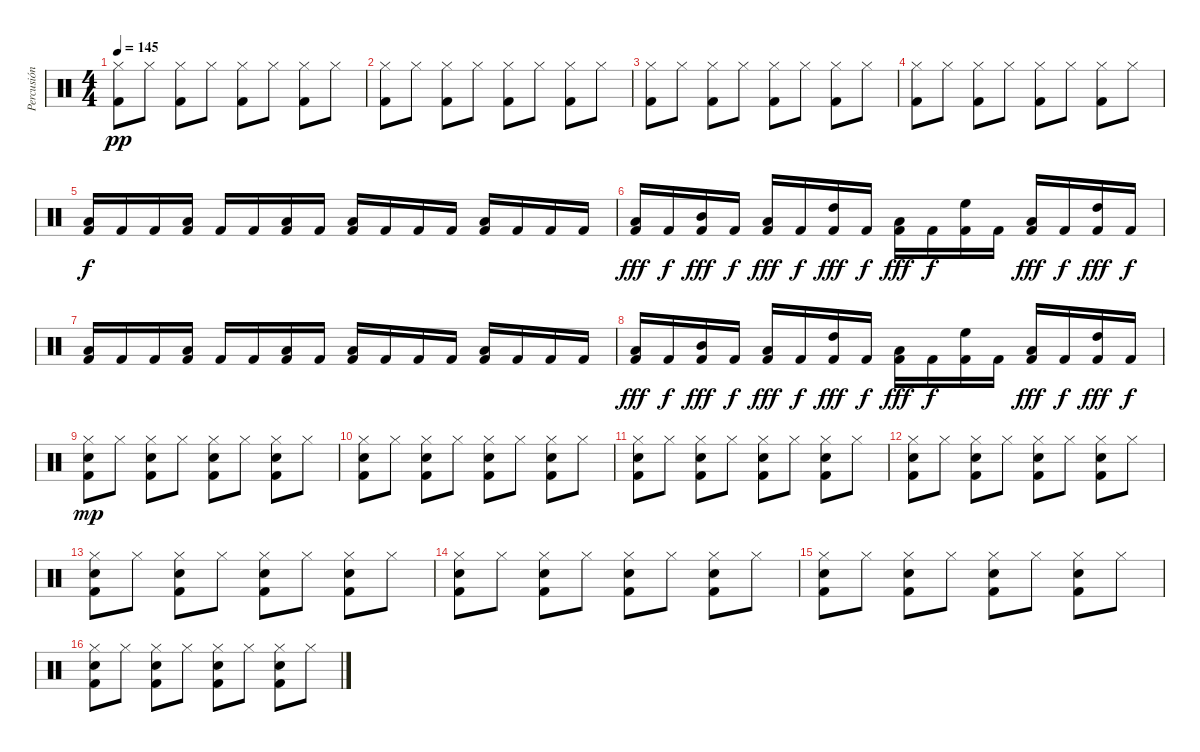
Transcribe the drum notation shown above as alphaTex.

\track ("Percusión" "Percusión") {instrument percussion}
\staff {score}
\articulation defaults
\ts (4 4)
\tempo 145
\clef neutral
\ks c
("Hi-Hat (closed)" "Kick (hit) 2").8{dy pp} "Hi-Hat (closed)".8 ("Hi-Hat (closed)" "Kick (hit) 2").8 "Hi-Hat (closed)".8 ("Hi-Hat (closed)" "Kick (hit) 2").8 "Hi-Hat (closed)".8 ("Hi-Hat (closed)" "Kick (hit) 2").8 "Hi-Hat (closed)".8 |
("Hi-Hat (closed)" "Kick (hit) 2").8 "Hi-Hat (closed)".8 ("Hi-Hat (closed)" "Kick (hit) 2").8 "Hi-Hat (closed)".8 ("Hi-Hat (closed)" "Kick (hit) 2").8 "Hi-Hat (closed)".8 ("Hi-Hat (closed)" "Kick (hit) 2").8 "Hi-Hat (closed)".8 |
("Hi-Hat (closed)" "Kick (hit) 2").8 "Hi-Hat (closed)".8 ("Hi-Hat (closed)" "Kick (hit) 2").8 "Hi-Hat (closed)".8 ("Hi-Hat (closed)" "Kick (hit) 2").8 "Hi-Hat (closed)".8 ("Hi-Hat (closed)" "Kick (hit) 2").8 "Hi-Hat (closed)".8 |
("Hi-Hat (closed)" "Kick (hit) 2").8 "Hi-Hat (closed)".8 ("Hi-Hat (closed)" "Kick (hit) 2").8 "Hi-Hat (closed)".8 ("Hi-Hat (closed)" "Kick (hit) 2").8 "Hi-Hat (closed)".8 ("Hi-Hat (closed)" "Kick (hit) 2").8 "Hi-Hat (closed)".8 |
("Kick (hit) 2" "Low Tom (hit)").16{dy f} "Kick (hit) 2".16 "Kick (hit) 2".16 ("Kick (hit) 2" "Low Tom (hit)").16 "Kick (hit) 2".16 "Kick (hit) 2".16 ("Kick (hit) 2" "Low Tom (hit)").16 "Kick (hit) 2".16 ("Kick (hit) 2" "Low Tom (hit)").16 "Kick (hit) 2".16 "Kick (hit) 2".16 "Kick (hit) 2".16 ("Kick (hit) 2" "Low Tom (hit)").16 "Kick (hit) 2".16 "Kick (hit) 2".16 "Kick (hit) 2".16 |
("Kick (hit) 2" "Low Tom (hit)").16{dy fff} "Kick (hit) 2".16{dy f} ("Kick (hit) 2" "Mid Tom (hit)").16{dy fff} "Kick (hit) 2".16{dy f} ("Kick (hit) 2" "Low Tom (hit)").16{dy fff} "Kick (hit) 2".16{dy f} ("Kick (hit) 2" "High Tom (hit)").16{dy fff} "Kick (hit) 2".16{dy f} ("Kick (hit) 2" "Low Tom (hit)").16{dy fff} "Kick (hit) 2".16{dy f} ("Kick (hit) 2" "High Floor Tom (hit)").16 "Kick (hit) 2".16 ("Kick (hit) 2" "Low Tom (hit)").16{dy fff} "Kick (hit) 2".16{dy f} ("Kick (hit) 2" "High Tom (hit)").16{dy fff} "Kick (hit) 2".16{dy f} |
("Kick (hit) 2" "Low Tom (hit)").16 "Kick (hit) 2".16 "Kick (hit) 2".16 ("Kick (hit) 2" "Low Tom (hit)").16 "Kick (hit) 2".16 "Kick (hit) 2".16 ("Kick (hit) 2" "Low Tom (hit)").16 "Kick (hit) 2".16 ("Kick (hit) 2" "Low Tom (hit)").16 "Kick (hit) 2".16 "Kick (hit) 2".16 "Kick (hit) 2".16 ("Kick (hit) 2" "Low Tom (hit)").16 "Kick (hit) 2".16 "Kick (hit) 2".16 "Kick (hit) 2".16 |
("Kick (hit) 2" "Low Tom (hit)").16{dy fff} "Kick (hit) 2".16{dy f} ("Kick (hit) 2" "Mid Tom (hit)").16{dy fff} "Kick (hit) 2".16{dy f} ("Kick (hit) 2" "Low Tom (hit)").16{dy fff} "Kick (hit) 2".16{dy f} ("Kick (hit) 2" "High Tom (hit)").16{dy fff} "Kick (hit) 2".16{dy f} ("Kick (hit) 2" "Low Tom (hit)").16{dy fff} "Kick (hit) 2".16{dy f} ("Kick (hit) 2" "High Floor Tom (hit)").16 "Kick (hit) 2".16 ("Kick (hit) 2" "Low Tom (hit)").16{dy fff} "Kick (hit) 2".16{dy f} ("Kick (hit) 2" "High Tom (hit)").16{dy fff} "Kick (hit) 2".16{dy f} |
("Kick (hit) 2" "Snare (hit) 2" "Hi-Hat (closed)").8{dy mp} "Hi-Hat (closed)".8 ("Kick (hit) 2" "Snare (hit) 2" "Hi-Hat (closed)").8 "Hi-Hat (closed)".8 ("Kick (hit) 2" "Snare (hit) 2" "Hi-Hat (closed)").8 "Hi-Hat (closed)".8 ("Kick (hit) 2" "Snare (hit) 2" "Hi-Hat (closed)").8 "Hi-Hat (closed)".8 |
("Kick (hit) 2" "Snare (hit) 2" "Hi-Hat (closed)").8 "Hi-Hat (closed)".8 ("Kick (hit) 2" "Snare (hit) 2" "Hi-Hat (closed)").8 "Hi-Hat (closed)".8 ("Kick (hit) 2" "Snare (hit) 2" "Hi-Hat (closed)").8 "Hi-Hat (closed)".8 ("Kick (hit) 2" "Snare (hit) 2" "Hi-Hat (closed)").8 "Hi-Hat (closed)".8 |
("Kick (hit) 2" "Snare (hit) 2" "Hi-Hat (closed)").8 "Hi-Hat (closed)".8 ("Kick (hit) 2" "Snare (hit) 2" "Hi-Hat (closed)").8 "Hi-Hat (closed)".8 ("Kick (hit) 2" "Snare (hit) 2" "Hi-Hat (closed)").8 "Hi-Hat (closed)".8 ("Kick (hit) 2" "Snare (hit) 2" "Hi-Hat (closed)").8 "Hi-Hat (closed)".8 |
("Kick (hit) 2" "Snare (hit) 2" "Hi-Hat (closed)").8 "Hi-Hat (closed)".8 ("Kick (hit) 2" "Snare (hit) 2" "Hi-Hat (closed)").8 "Hi-Hat (closed)".8 ("Kick (hit) 2" "Snare (hit) 2" "Hi-Hat (closed)").8 "Hi-Hat (closed)".8 ("Kick (hit) 2" "Snare (hit) 2" "Hi-Hat (closed)").8 "Hi-Hat (closed)".8 |
("Kick (hit) 2" "Snare (hit) 2" "Hi-Hat (closed)").8 "Hi-Hat (closed)".8 ("Kick (hit) 2" "Snare (hit) 2" "Hi-Hat (closed)").8 "Hi-Hat (closed)".8 ("Kick (hit) 2" "Snare (hit) 2" "Hi-Hat (closed)").8 "Hi-Hat (closed)".8 ("Kick (hit) 2" "Snare (hit) 2" "Hi-Hat (closed)").8 "Hi-Hat (closed)".8 |
("Kick (hit) 2" "Snare (hit) 2" "Hi-Hat (closed)").8 "Hi-Hat (closed)".8 ("Kick (hit) 2" "Snare (hit) 2" "Hi-Hat (closed)").8 "Hi-Hat (closed)".8 ("Kick (hit) 2" "Snare (hit) 2" "Hi-Hat (closed)").8 "Hi-Hat (closed)".8 ("Kick (hit) 2" "Snare (hit) 2" "Hi-Hat (closed)").8 "Hi-Hat (closed)".8 |
("Kick (hit) 2" "Snare (hit) 2" "Hi-Hat (closed)").8 "Hi-Hat (closed)".8 ("Kick (hit) 2" "Snare (hit) 2" "Hi-Hat (closed)").8 "Hi-Hat (closed)".8 ("Kick (hit) 2" "Snare (hit) 2" "Hi-Hat (closed)").8 "Hi-Hat (closed)".8 ("Kick (hit) 2" "Snare (hit) 2" "Hi-Hat (closed)").8 "Hi-Hat (closed)".8 |
("Kick (hit) 2" "Snare (hit) 2" "Hi-Hat (closed)").8 "Hi-Hat (closed)".8 ("Kick (hit) 2" "Snare (hit) 2" "Hi-Hat (closed)").8 "Hi-Hat (closed)".8 ("Kick (hit) 2" "Snare (hit) 2" "Hi-Hat (closed)").8 "Hi-Hat (closed)".8 ("Kick (hit) 2" "Snare (hit) 2" "Hi-Hat (closed)").8 "Hi-Hat (closed)".8
